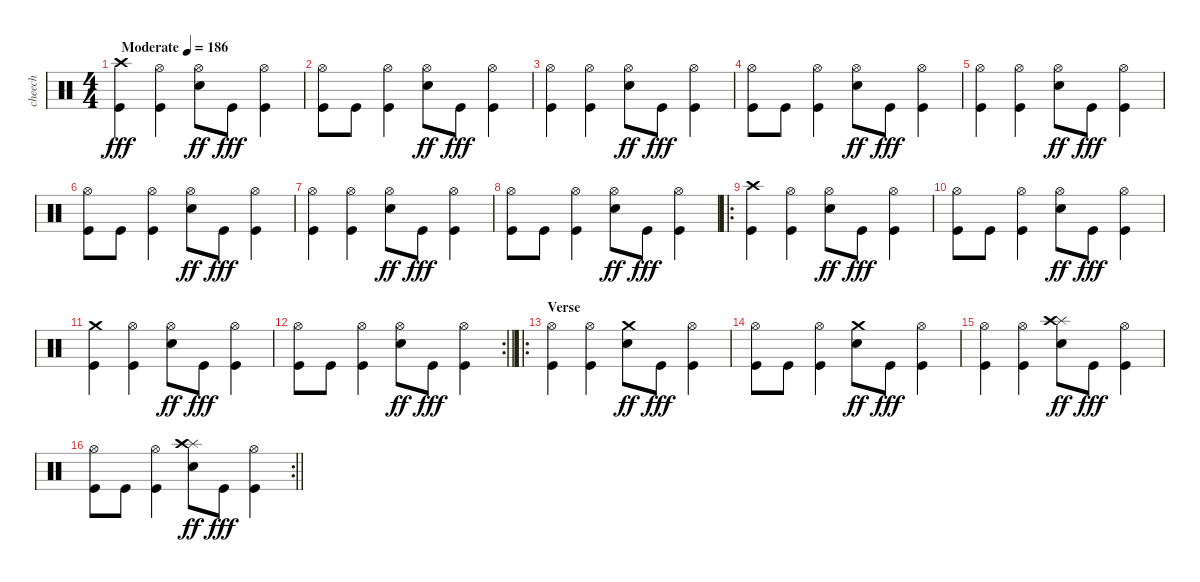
\track ("cheech" "cheech") {instrument percussion}
\staff {score}
\articulation defaults
\ts (4 4)
\tempo (186 "Moderate")
\clef neutral
\ks c
("Crash high (hit)" "Kick (hit)").4{dy fff} ("Hi-Hat (open)" "Kick (hit)").4 ("Hi-Hat (open)" "Electric Snare (hit)").8{dy ff} "Kick (hit)".8{dy fff} ("Hi-Hat (open)" "Kick (hit)").4 |
("Hi-Hat (open)" "Kick (hit)").8 "Kick (hit)".8 ("Hi-Hat (open)" "Kick (hit)").4 ("Hi-Hat (open)" "Electric Snare (hit)").8{dy ff} "Kick (hit)".8{dy fff} ("Hi-Hat (open)" "Kick (hit)").4 |
("Hi-Hat (open)" "Kick (hit)").4 ("Hi-Hat (open)" "Kick (hit)").4 ("Hi-Hat (open)" "Electric Snare (hit)").8{dy ff} "Kick (hit)".8{dy fff} ("Hi-Hat (open)" "Kick (hit)").4 |
("Hi-Hat (open)" "Kick (hit)").8 "Kick (hit)".8 ("Hi-Hat (open)" "Kick (hit)").4 ("Hi-Hat (open)" "Electric Snare (hit)").8{dy ff} "Kick (hit)".8{dy fff} ("Hi-Hat (open)" "Kick (hit)").4 |
("Hi-Hat (open)" "Kick (hit)").4 ("Hi-Hat (open)" "Kick (hit)").4 ("Hi-Hat (open)" "Electric Snare (hit)").8{dy ff} "Kick (hit)".8{dy fff} ("Hi-Hat (open)" "Kick (hit)").4 |
("Hi-Hat (open)" "Kick (hit)").8 "Kick (hit)".8 ("Hi-Hat (open)" "Kick (hit)").4 ("Hi-Hat (open)" "Electric Snare (hit)").8{dy ff} "Kick (hit)".8{dy fff} ("Hi-Hat (open)" "Kick (hit)").4 |
("Hi-Hat (open)" "Kick (hit)").4 ("Hi-Hat (open)" "Kick (hit)").4 ("Hi-Hat (open)" "Electric Snare (hit)").8{dy ff} "Kick (hit)".8{dy fff} ("Hi-Hat (open)" "Kick (hit)").4 |
("Hi-Hat (open)" "Kick (hit)").8 "Kick (hit)".8 ("Hi-Hat (open)" "Kick (hit)").4 ("Hi-Hat (open)" "Electric Snare (hit)").8{dy ff} "Kick (hit)".8{dy fff} ("Hi-Hat (open)" "Kick (hit)").4 |
\ro
("Crash high (hit)" "Kick (hit)").4 ("Hi-Hat (open)" "Kick (hit)").4 ("Hi-Hat (open)" "Electric Snare (hit)").8{dy ff} "Kick (hit)".8{dy fff} ("Hi-Hat (open)" "Kick (hit)").4 |
("Hi-Hat (open)" "Kick (hit)").8 "Kick (hit)".8 ("Hi-Hat (open)" "Kick (hit)").4 ("Hi-Hat (open)" "Electric Snare (hit)").8{dy ff} "Kick (hit)".8{dy fff} ("Hi-Hat (open)" "Kick (hit)").4 |
("Crash medium (hit)" "Kick (hit)").4 ("Hi-Hat (open)" "Kick (hit)").4 ("Hi-Hat (open)" "Electric Snare (hit)").8{dy ff} "Kick (hit)".8{dy fff} ("Hi-Hat (open)" "Kick (hit)").4 |
\rc 2
\barLineRight lightlight
("Hi-Hat (open)" "Kick (hit)").8 "Kick (hit)".8 ("Hi-Hat (open)" "Kick (hit)").4 ("Hi-Hat (open)" "Electric Snare (hit)").8{dy ff} "Kick (hit)".8{dy fff} ("Hi-Hat (open)" "Kick (hit)").4 |
\ro
\section ("" "Verse")
("Hi-Hat (open)" "Kick (hit)").4 ("Hi-Hat (open)" "Kick (hit)").4 ("Crash medium (hit)" "Electric Snare (hit)").8{dy ff} "Kick (hit)".8{dy fff} ("Hi-Hat (open)" "Kick (hit)").4 |
("Hi-Hat (open)" "Kick (hit)").8 "Kick (hit)".8 ("Hi-Hat (open)" "Kick (hit)").4 ("Crash medium (hit)" "Electric Snare (hit)").8{dy ff} "Kick (hit)".8{dy fff} ("Hi-Hat (open)" "Kick (hit)").4 |
("Hi-Hat (open)" "Kick (hit)").4 ("Hi-Hat (open)" "Kick (hit)").4 ("Splash (hit)" "Crash high (hit)" "Electric Snare (hit)").8{dy ff} "Kick (hit)".8{dy fff} ("Hi-Hat (open)" "Kick (hit)").4 |
\rc 2
\barLineRight lightlight
("Hi-Hat (open)" "Kick (hit)").8 "Kick (hit)".8 ("Hi-Hat (open)" "Kick (hit)").4 ("Splash (hit)" "Crash high (hit)" "Electric Snare (hit)").8{dy ff} "Kick (hit)".8{dy fff} ("Hi-Hat (open)" "Kick (hit)").4
